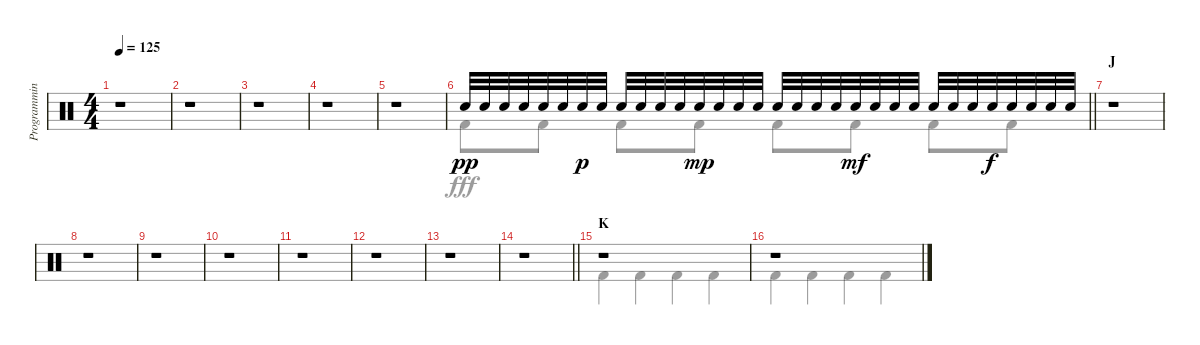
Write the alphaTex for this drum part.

\track ("Programming" "Programmin") {instrument percussion}
\staff {score}
\articulation defaults
\voice
\ts (4 4)
\tempo 125
\clef neutral
\ks c
r.1{dy f} |
r.1 |
r.1 |
r.1 |
r.1 |
\barLineRight lightlight "Electric Snare (hit)".32{dy pp} "Electric Snare (hit)".32 "Electric Snare (hit)".32 "Electric Snare (hit)".32 "Electric Snare (hit)".32 "Electric Snare (hit)".32 "Electric Snare (hit)".32{dy p} "Electric Snare (hit)".32 "Electric Snare (hit)".32 "Electric Snare (hit)".32 "Electric Snare (hit)".32 "Electric Snare (hit)".32 "Electric Snare (hit)".32{dy mp} "Electric Snare (hit)".32 "Electric Snare (hit)".32 "Electric Snare (hit)".32 "Electric Snare (hit)".32 "Electric Snare (hit)".32 "Electric Snare (hit)".32 "Electric Snare (hit)".32 "Electric Snare (hit)".32{dy mf} "Electric Snare (hit)".32 "Electric Snare (hit)".32 "Electric Snare (hit)".32 "Electric Snare (hit)".32 "Electric Snare (hit)".32 "Electric Snare (hit)".32 "Electric Snare (hit)".32{dy f} "Electric Snare (hit)".32 "Electric Snare (hit)".32 "Electric Snare (hit)".32 "Electric Snare (hit)".32
|
\section ("" "J")
r.1 |
r.1 |
r.1 |
r.1 |
r.1 |
r.1 |
r.1 |
\barLineRight lightlight
r.1 |
\section ("" "K")
r.1 |
r.1
\voice
\clef neutral
\ottava regular
\simile none
\ks c
r.1{dy fff} |
r.1 |
r.1 |
r.1 |
r.1 |
\barLineRight lightlight "Kick (hit) 2".8 "Kick (hit) 2".8 "Kick (hit) 2".8 "Kick (hit) 2".8 "Kick (hit) 2".8 "Kick (hit) 2".8 "Kick (hit) 2".8 "Kick (hit) 2".8
|
r.1 |
r.1 |
r.1 |
r.1 |
r.1 |
r.1 |
r.1 |
\barLineRight lightlight
r.1 |
"Kick (hit) 2".4 "Kick (hit) 2".4 "Kick (hit) 2".4 "Kick (hit) 2".4 |
"Kick (hit) 2".4 "Kick (hit) 2".4 "Kick (hit) 2".4 "Kick (hit) 2".4
